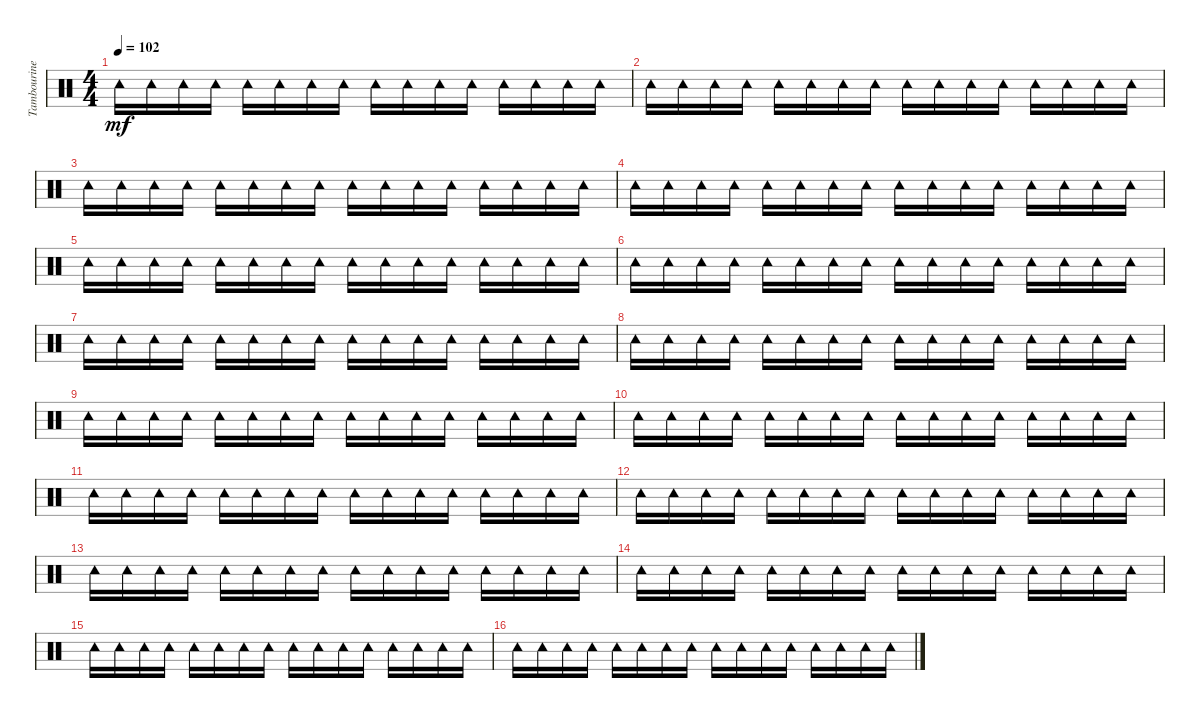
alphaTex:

\track ("Tambourine" "Tambourine") {instrument percussion}
\staff {score}
\articulation defaults
\ts (4 4)
\tempo 102
\clef neutral
\ks c "Tambourine (hit)".16{dy mf} "Tambourine (hit)".16 "Tambourine (hit)".16 "Tambourine (hit)".16 "Tambourine (hit)".16 "Tambourine (hit)".16 "Tambourine (hit)".16 "Tambourine (hit)".16 "Tambourine (hit)".16 "Tambourine (hit)".16 "Tambourine (hit)".16 "Tambourine (hit)".16 "Tambourine (hit)".16 "Tambourine (hit)".16 "Tambourine (hit)".16 "Tambourine (hit)".16
|
"Tambourine (hit)".16 "Tambourine (hit)".16 "Tambourine (hit)".16 "Tambourine (hit)".16 "Tambourine (hit)".16 "Tambourine (hit)".16 "Tambourine (hit)".16 "Tambourine (hit)".16 "Tambourine (hit)".16 "Tambourine (hit)".16 "Tambourine (hit)".16 "Tambourine (hit)".16 "Tambourine (hit)".16 "Tambourine (hit)".16 "Tambourine (hit)".16 "Tambourine (hit)".16 |
"Tambourine (hit)".16 "Tambourine (hit)".16 "Tambourine (hit)".16 "Tambourine (hit)".16 "Tambourine (hit)".16 "Tambourine (hit)".16 "Tambourine (hit)".16 "Tambourine (hit)".16 "Tambourine (hit)".16 "Tambourine (hit)".16 "Tambourine (hit)".16 "Tambourine (hit)".16 "Tambourine (hit)".16 "Tambourine (hit)".16 "Tambourine (hit)".16 "Tambourine (hit)".16 |
"Tambourine (hit)".16 "Tambourine (hit)".16 "Tambourine (hit)".16 "Tambourine (hit)".16 "Tambourine (hit)".16 "Tambourine (hit)".16 "Tambourine (hit)".16 "Tambourine (hit)".16 "Tambourine (hit)".16 "Tambourine (hit)".16 "Tambourine (hit)".16 "Tambourine (hit)".16 "Tambourine (hit)".16 "Tambourine (hit)".16 "Tambourine (hit)".16 "Tambourine (hit)".16 |
"Tambourine (hit)".16 "Tambourine (hit)".16 "Tambourine (hit)".16 "Tambourine (hit)".16 "Tambourine (hit)".16 "Tambourine (hit)".16 "Tambourine (hit)".16 "Tambourine (hit)".16 "Tambourine (hit)".16 "Tambourine (hit)".16 "Tambourine (hit)".16 "Tambourine (hit)".16 "Tambourine (hit)".16 "Tambourine (hit)".16 "Tambourine (hit)".16 "Tambourine (hit)".16 |
"Tambourine (hit)".16 "Tambourine (hit)".16 "Tambourine (hit)".16 "Tambourine (hit)".16 "Tambourine (hit)".16 "Tambourine (hit)".16 "Tambourine (hit)".16 "Tambourine (hit)".16 "Tambourine (hit)".16 "Tambourine (hit)".16 "Tambourine (hit)".16 "Tambourine (hit)".16 "Tambourine (hit)".16 "Tambourine (hit)".16 "Tambourine (hit)".16 "Tambourine (hit)".16 |
"Tambourine (hit)".16 "Tambourine (hit)".16 "Tambourine (hit)".16 "Tambourine (hit)".16 "Tambourine (hit)".16 "Tambourine (hit)".16 "Tambourine (hit)".16 "Tambourine (hit)".16 "Tambourine (hit)".16 "Tambourine (hit)".16 "Tambourine (hit)".16 "Tambourine (hit)".16 "Tambourine (hit)".16 "Tambourine (hit)".16 "Tambourine (hit)".16 "Tambourine (hit)".16 |
"Tambourine (hit)".16 "Tambourine (hit)".16 "Tambourine (hit)".16 "Tambourine (hit)".16 "Tambourine (hit)".16 "Tambourine (hit)".16 "Tambourine (hit)".16 "Tambourine (hit)".16 "Tambourine (hit)".16 "Tambourine (hit)".16 "Tambourine (hit)".16 "Tambourine (hit)".16 "Tambourine (hit)".16 "Tambourine (hit)".16 "Tambourine (hit)".16 "Tambourine (hit)".16 |
"Tambourine (hit)".16 "Tambourine (hit)".16 "Tambourine (hit)".16 "Tambourine (hit)".16 "Tambourine (hit)".16 "Tambourine (hit)".16 "Tambourine (hit)".16 "Tambourine (hit)".16 "Tambourine (hit)".16 "Tambourine (hit)".16 "Tambourine (hit)".16 "Tambourine (hit)".16 "Tambourine (hit)".16 "Tambourine (hit)".16 "Tambourine (hit)".16 "Tambourine (hit)".16 |
"Tambourine (hit)".16 "Tambourine (hit)".16 "Tambourine (hit)".16 "Tambourine (hit)".16 "Tambourine (hit)".16 "Tambourine (hit)".16 "Tambourine (hit)".16 "Tambourine (hit)".16 "Tambourine (hit)".16 "Tambourine (hit)".16 "Tambourine (hit)".16 "Tambourine (hit)".16 "Tambourine (hit)".16 "Tambourine (hit)".16 "Tambourine (hit)".16 "Tambourine (hit)".16 |
"Tambourine (hit)".16 "Tambourine (hit)".16 "Tambourine (hit)".16 "Tambourine (hit)".16 "Tambourine (hit)".16 "Tambourine (hit)".16 "Tambourine (hit)".16 "Tambourine (hit)".16 "Tambourine (hit)".16 "Tambourine (hit)".16 "Tambourine (hit)".16 "Tambourine (hit)".16 "Tambourine (hit)".16 "Tambourine (hit)".16 "Tambourine (hit)".16 "Tambourine (hit)".16 |
"Tambourine (hit)".16 "Tambourine (hit)".16 "Tambourine (hit)".16 "Tambourine (hit)".16 "Tambourine (hit)".16 "Tambourine (hit)".16 "Tambourine (hit)".16 "Tambourine (hit)".16 "Tambourine (hit)".16 "Tambourine (hit)".16 "Tambourine (hit)".16 "Tambourine (hit)".16 "Tambourine (hit)".16 "Tambourine (hit)".16 "Tambourine (hit)".16 "Tambourine (hit)".16 |
"Tambourine (hit)".16 "Tambourine (hit)".16 "Tambourine (hit)".16 "Tambourine (hit)".16 "Tambourine (hit)".16 "Tambourine (hit)".16 "Tambourine (hit)".16 "Tambourine (hit)".16 "Tambourine (hit)".16 "Tambourine (hit)".16 "Tambourine (hit)".16 "Tambourine (hit)".16 "Tambourine (hit)".16 "Tambourine (hit)".16 "Tambourine (hit)".16 "Tambourine (hit)".16 |
"Tambourine (hit)".16 "Tambourine (hit)".16 "Tambourine (hit)".16 "Tambourine (hit)".16 "Tambourine (hit)".16 "Tambourine (hit)".16 "Tambourine (hit)".16 "Tambourine (hit)".16 "Tambourine (hit)".16 "Tambourine (hit)".16 "Tambourine (hit)".16 "Tambourine (hit)".16 "Tambourine (hit)".16 "Tambourine (hit)".16 "Tambourine (hit)".16 "Tambourine (hit)".16 |
"Tambourine (hit)".16 "Tambourine (hit)".16 "Tambourine (hit)".16 "Tambourine (hit)".16 "Tambourine (hit)".16 "Tambourine (hit)".16 "Tambourine (hit)".16 "Tambourine (hit)".16 "Tambourine (hit)".16 "Tambourine (hit)".16 "Tambourine (hit)".16 "Tambourine (hit)".16 "Tambourine (hit)".16 "Tambourine (hit)".16 "Tambourine (hit)".16 "Tambourine (hit)".16 |
"Tambourine (hit)".16 "Tambourine (hit)".16 "Tambourine (hit)".16 "Tambourine (hit)".16 "Tambourine (hit)".16 "Tambourine (hit)".16 "Tambourine (hit)".16 "Tambourine (hit)".16 "Tambourine (hit)".16 "Tambourine (hit)".16 "Tambourine (hit)".16 "Tambourine (hit)".16 "Tambourine (hit)".16 "Tambourine (hit)".16 "Tambourine (hit)".16 "Tambourine (hit)".16
